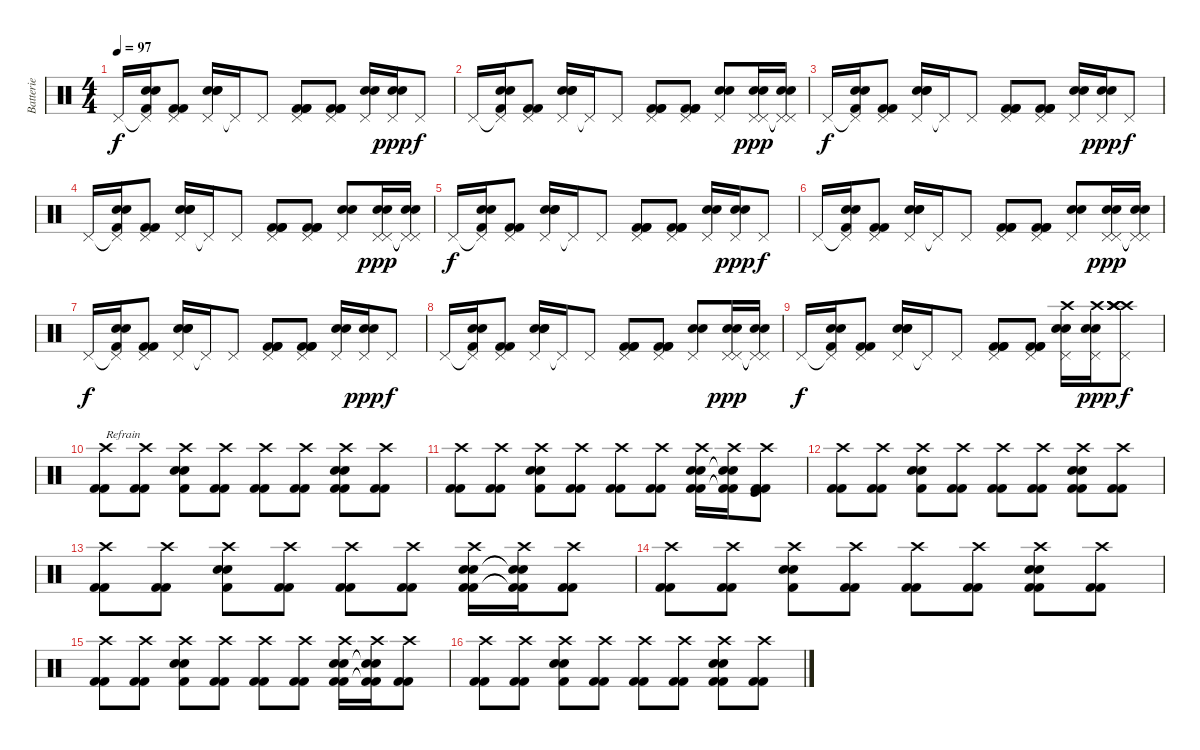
\track ("Batterie" "Batterie") {instrument percussion}
\staff {score}
\articulation defaults
\ts (4 4)
\tempo 97
\clef neutral
\ks c "Pedal Hi-Hat (hit)".16{dy f}
("Pedal Hi-Hat (hit)"{t} "Snare (hit) 2" "Snare (hit) 2" "Kick (hit) 2").16 ("Pedal Hi-Hat (hit)" "Kick (hit) 2" "Kick (hit) 2").8 ("Pedal Hi-Hat (hit)" "Snare (hit) 2" "Snare (hit) 2" "Snare (hit) 2").16 "Pedal Hi-Hat (hit)"{t}.16 "Pedal Hi-Hat (hit)".8 ("Pedal Hi-Hat (hit)" "Kick (hit) 2" "Kick (hit) 2" "Kick (hit) 2").8 ("Pedal Hi-Hat (hit)" "Kick (hit) 2" "Kick (hit) 2" "Kick (hit) 2").8 ("Pedal Hi-Hat (hit)" "Snare (hit) 2" "Snare (hit) 2").16 ("Pedal Hi-Hat (hit)" "Snare (hit) 2" "Snare (hit) 2").16{dy ppp} "Pedal Hi-Hat (hit)".8{dy f} |
"Pedal Hi-Hat (hit)".16 ("Pedal Hi-Hat (hit)"{t} "Snare (hit) 2" "Snare (hit) 2" "Kick (hit) 2").16 ("Pedal Hi-Hat (hit)" "Kick (hit) 2" "Kick (hit) 2").8 ("Pedal Hi-Hat (hit)" "Snare (hit) 2" "Snare (hit) 2" "Snare (hit) 2").16 "Pedal Hi-Hat (hit)"{t}.16 "Pedal Hi-Hat (hit)".8 ("Pedal Hi-Hat (hit)" "Kick (hit) 2" "Kick (hit) 2" "Kick (hit) 2").8 ("Pedal Hi-Hat (hit)" "Kick (hit) 2" "Kick (hit) 2" "Kick (hit) 2").8 ("Pedal Hi-Hat (hit)" "Snare (hit) 2" "Snare (hit) 2").8 ("Pedal Hi-Hat (hit)" "Pedal Hi-Hat (hit)" "Snare (hit) 2" "Snare (hit) 2").16{dy ppp} ("Pedal Hi-Hat (hit)"{t} "Pedal Hi-Hat (hit)"{t} "Snare (hit) 2" "Snare (hit) 2").16 |
"Pedal Hi-Hat (hit)".16{dy f} ("Pedal Hi-Hat (hit)"{t} "Snare (hit) 2" "Snare (hit) 2" "Kick (hit) 2").16 ("Pedal Hi-Hat (hit)" "Kick (hit) 2" "Kick (hit) 2").8 ("Pedal Hi-Hat (hit)" "Snare (hit) 2" "Snare (hit) 2" "Snare (hit) 2").16 "Pedal Hi-Hat (hit)"{t}.16 "Pedal Hi-Hat (hit)".8 ("Pedal Hi-Hat (hit)" "Kick (hit) 2" "Kick (hit) 2" "Kick (hit) 2").8 ("Pedal Hi-Hat (hit)" "Kick (hit) 2" "Kick (hit) 2" "Kick (hit) 2").8 ("Pedal Hi-Hat (hit)" "Snare (hit) 2" "Snare (hit) 2").16 ("Pedal Hi-Hat (hit)" "Snare (hit) 2" "Snare (hit) 2").16{dy ppp} "Pedal Hi-Hat (hit)".8{dy f} |
"Pedal Hi-Hat (hit)".16 ("Pedal Hi-Hat (hit)"{t} "Snare (hit) 2" "Snare (hit) 2" "Kick (hit) 2").16 ("Pedal Hi-Hat (hit)" "Kick (hit) 2" "Kick (hit) 2").8 ("Pedal Hi-Hat (hit)" "Snare (hit) 2" "Snare (hit) 2" "Snare (hit) 2").16 "Pedal Hi-Hat (hit)"{t}.16 "Pedal Hi-Hat (hit)".8 ("Pedal Hi-Hat (hit)" "Kick (hit) 2" "Kick (hit) 2" "Kick (hit) 2").8 ("Pedal Hi-Hat (hit)" "Kick (hit) 2" "Kick (hit) 2" "Kick (hit) 2").8 ("Pedal Hi-Hat (hit)" "Snare (hit) 2" "Snare (hit) 2").8 ("Pedal Hi-Hat (hit)" "Pedal Hi-Hat (hit)" "Snare (hit) 2" "Snare (hit) 2").16{dy ppp} ("Pedal Hi-Hat (hit)"{t} "Pedal Hi-Hat (hit)"{t} "Snare (hit) 2" "Snare (hit) 2").16 |
"Pedal Hi-Hat (hit)".16{dy f} ("Pedal Hi-Hat (hit)"{t} "Snare (hit) 2" "Snare (hit) 2" "Kick (hit) 2").16 ("Pedal Hi-Hat (hit)" "Kick (hit) 2" "Kick (hit) 2").8 ("Pedal Hi-Hat (hit)" "Snare (hit) 2" "Snare (hit) 2" "Snare (hit) 2").16 "Pedal Hi-Hat (hit)"{t}.16 "Pedal Hi-Hat (hit)".8 ("Pedal Hi-Hat (hit)" "Kick (hit) 2" "Kick (hit) 2" "Kick (hit) 2").8 ("Pedal Hi-Hat (hit)" "Kick (hit) 2" "Kick (hit) 2" "Kick (hit) 2").8 ("Pedal Hi-Hat (hit)" "Snare (hit) 2" "Snare (hit) 2").16 ("Pedal Hi-Hat (hit)" "Snare (hit) 2" "Snare (hit) 2").16{dy ppp} "Pedal Hi-Hat (hit)".8{dy f} |
"Pedal Hi-Hat (hit)".16 ("Pedal Hi-Hat (hit)"{t} "Snare (hit) 2" "Snare (hit) 2" "Kick (hit) 2").16 ("Pedal Hi-Hat (hit)" "Kick (hit) 2" "Kick (hit) 2").8 ("Pedal Hi-Hat (hit)" "Snare (hit) 2" "Snare (hit) 2" "Snare (hit) 2").16 "Pedal Hi-Hat (hit)"{t}.16 "Pedal Hi-Hat (hit)".8 ("Pedal Hi-Hat (hit)" "Kick (hit) 2" "Kick (hit) 2" "Kick (hit) 2").8 ("Pedal Hi-Hat (hit)" "Kick (hit) 2" "Kick (hit) 2" "Kick (hit) 2").8 ("Pedal Hi-Hat (hit)" "Snare (hit) 2" "Snare (hit) 2").8 ("Pedal Hi-Hat (hit)" "Pedal Hi-Hat (hit)" "Snare (hit) 2" "Snare (hit) 2").16{dy ppp} ("Pedal Hi-Hat (hit)"{t} "Pedal Hi-Hat (hit)"{t} "Snare (hit) 2" "Snare (hit) 2").16 |
"Pedal Hi-Hat (hit)".16{dy f} ("Pedal Hi-Hat (hit)"{t} "Snare (hit) 2" "Snare (hit) 2" "Kick (hit) 2").16 ("Pedal Hi-Hat (hit)" "Kick (hit) 2" "Kick (hit) 2").8 ("Pedal Hi-Hat (hit)" "Snare (hit) 2" "Snare (hit) 2" "Snare (hit) 2").16 "Pedal Hi-Hat (hit)"{t}.16 "Pedal Hi-Hat (hit)".8 ("Pedal Hi-Hat (hit)" "Kick (hit) 2" "Kick (hit) 2" "Kick (hit) 2").8 ("Pedal Hi-Hat (hit)" "Kick (hit) 2" "Kick (hit) 2" "Kick (hit) 2").8 ("Pedal Hi-Hat (hit)" "Snare (hit) 2" "Snare (hit) 2").16 ("Pedal Hi-Hat (hit)" "Snare (hit) 2" "Snare (hit) 2").16{dy ppp} "Pedal Hi-Hat (hit)".8{dy f} |
"Pedal Hi-Hat (hit)".16 ("Pedal Hi-Hat (hit)"{t} "Snare (hit) 2" "Snare (hit) 2" "Kick (hit) 2").16 ("Pedal Hi-Hat (hit)" "Kick (hit) 2" "Kick (hit) 2").8 ("Pedal Hi-Hat (hit)" "Snare (hit) 2" "Snare (hit) 2" "Snare (hit) 2").16 "Pedal Hi-Hat (hit)"{t}.16 "Pedal Hi-Hat (hit)".8 ("Pedal Hi-Hat (hit)" "Kick (hit) 2" "Kick (hit) 2" "Kick (hit) 2").8 ("Pedal Hi-Hat (hit)" "Kick (hit) 2" "Kick (hit) 2" "Kick (hit) 2").8 ("Pedal Hi-Hat (hit)" "Snare (hit) 2" "Snare (hit) 2").8 ("Pedal Hi-Hat (hit)" "Pedal Hi-Hat (hit)" "Snare (hit) 2" "Snare (hit) 2").16{dy ppp} ("Pedal Hi-Hat (hit)"{t} "Pedal Hi-Hat (hit)"{t} "Snare (hit) 2" "Snare (hit) 2").16 |
"Pedal Hi-Hat (hit)".16{dy f} ("Pedal Hi-Hat (hit)"{t} "Snare (hit) 2" "Snare (hit) 2" "Kick (hit) 2").16 ("Pedal Hi-Hat (hit)" "Kick (hit) 2" "Kick (hit) 2").8 ("Pedal Hi-Hat (hit)" "Snare (hit) 2" "Snare (hit) 2" "Snare (hit) 2").16 "Pedal Hi-Hat (hit)"{t}.16 "Pedal Hi-Hat (hit)".8 ("Pedal Hi-Hat (hit)" "Kick (hit) 2" "Kick (hit) 2" "Kick (hit) 2").8 ("Pedal Hi-Hat (hit)" "Kick (hit) 2" "Kick (hit) 2" "Kick (hit) 2").8 ("Pedal Hi-Hat (hit)" "Snare (hit) 2" "Snare (hit) 2" "Crash high (hit)").16 ("Pedal Hi-Hat (hit)" "Snare (hit) 2" "Snare (hit) 2" "Crash high (hit)").16{dy ppp} ("Pedal Hi-Hat (hit)" "Crash high (hit)" "Crash high (hit)" "Crash high (hit)" "Crash high (hit)").8{dy f} |
("Crash high (hit)" "Kick (hit) 2" "Kick (hit) 2").8{txt "Refrain"} ("Crash high (hit)" "Kick (hit) 2" "Kick (hit) 2").8 ("Crash high (hit)" "Snare (hit) 2" "Snare (hit) 2" "Kick (hit) 2").8 ("Crash high (hit)" "Kick (hit) 2" "Kick (hit) 2").8 ("Crash high (hit)" "Kick (hit) 2" "Kick (hit) 2").8 ("Crash high (hit)" "Kick (hit) 2" "Kick (hit) 2").8 ("Crash high (hit)" "Snare (hit) 2" "Snare (hit) 2" "Kick (hit) 2" "Kick (hit) 2").8 ("Crash high (hit)" "Kick (hit) 2" "Kick (hit) 2").8 |
("Crash high (hit)" "Kick (hit) 2" "Kick (hit) 2").8 ("Crash high (hit)" "Kick (hit) 2" "Kick (hit) 2").8 ("Crash high (hit)" "Snare (hit) 2" "Snare (hit) 2" "Kick (hit) 2").8 ("Crash high (hit)" "Kick (hit) 2" "Kick (hit) 2").8 ("Crash high (hit)" "Kick (hit) 2" "Kick (hit) 2").8 ("Crash high (hit)" "Kick (hit) 2" "Kick (hit) 2").8 ("Crash high (hit)" "Snare (hit) 2" "Snare (hit) 2" "Kick (hit) 2" "Kick (hit) 2").16 ("Crash high (hit)" "Snare (hit) 2"{t} "Snare (hit) 2"{t} "Kick (hit) 2"{t} "Kick (hit) 2"{t}).16 ("Crash high (hit)" "Kick (hit) 2" "Kick (hit) 2" "Kick (hit)").8 |
("Crash high (hit)" "Kick (hit) 2" "Kick (hit) 2").8 ("Crash high (hit)" "Kick (hit) 2" "Kick (hit) 2").8 ("Crash high (hit)" "Snare (hit) 2" "Snare (hit) 2" "Kick (hit) 2").8 ("Crash high (hit)" "Kick (hit) 2" "Kick (hit) 2").8 ("Crash high (hit)" "Kick (hit) 2" "Kick (hit) 2").8 ("Crash high (hit)" "Kick (hit) 2" "Kick (hit) 2").8 ("Crash high (hit)" "Snare (hit) 2" "Snare (hit) 2" "Kick (hit) 2" "Kick (hit) 2").8 ("Crash high (hit)" "Kick (hit) 2" "Kick (hit) 2").8 |
("Crash high (hit)" "Kick (hit) 2" "Kick (hit) 2").8 ("Crash high (hit)" "Kick (hit) 2" "Kick (hit) 2").8 ("Crash high (hit)" "Snare (hit) 2" "Snare (hit) 2" "Kick (hit) 2").8 ("Crash high (hit)" "Kick (hit) 2" "Kick (hit) 2").8 ("Crash high (hit)" "Kick (hit) 2" "Kick (hit) 2").8 ("Crash high (hit)" "Kick (hit) 2" "Kick (hit) 2").8 ("Crash high (hit)" "Snare (hit) 2" "Snare (hit) 2" "Kick (hit) 2" "Kick (hit) 2").16 ("Crash high (hit)" "Snare (hit) 2"{t} "Snare (hit) 2"{t} "Kick (hit) 2"{t} "Kick (hit) 2"{t}).16 ("Crash high (hit)" "Kick (hit) 2" "Kick (hit) 2").8 |
("Crash high (hit)" "Kick (hit) 2" "Kick (hit) 2").8 ("Crash high (hit)" "Kick (hit) 2" "Kick (hit) 2").8 ("Crash high (hit)" "Snare (hit) 2" "Snare (hit) 2" "Kick (hit) 2").8 ("Crash high (hit)" "Kick (hit) 2" "Kick (hit) 2").8 ("Crash high (hit)" "Kick (hit) 2" "Kick (hit) 2").8 ("Crash high (hit)" "Kick (hit) 2" "Kick (hit) 2").8 ("Crash high (hit)" "Snare (hit) 2" "Snare (hit) 2" "Kick (hit) 2" "Kick (hit) 2").8 ("Crash high (hit)" "Kick (hit) 2" "Kick (hit) 2").8 |
("Crash high (hit)" "Kick (hit) 2" "Kick (hit) 2").8 ("Crash high (hit)" "Kick (hit) 2" "Kick (hit) 2").8 ("Crash high (hit)" "Snare (hit) 2" "Snare (hit) 2" "Kick (hit) 2").8 ("Crash high (hit)" "Kick (hit) 2" "Kick (hit) 2").8 ("Crash high (hit)" "Kick (hit) 2" "Kick (hit) 2").8 ("Crash high (hit)" "Kick (hit) 2" "Kick (hit) 2").8 ("Crash high (hit)" "Snare (hit) 2" "Snare (hit) 2" "Kick (hit) 2" "Kick (hit) 2").16 ("Crash high (hit)" "Snare (hit) 2"{t} "Snare (hit) 2"{t} "Kick (hit) 2"{t} "Kick (hit) 2"{t}).16 ("Crash high (hit)" "Kick (hit) 2" "Kick (hit) 2").8 |
("Crash high (hit)" "Kick (hit) 2" "Kick (hit) 2").8 ("Crash high (hit)" "Kick (hit) 2" "Kick (hit) 2").8 ("Crash high (hit)" "Snare (hit) 2" "Snare (hit) 2" "Kick (hit) 2").8 ("Crash high (hit)" "Kick (hit) 2" "Kick (hit) 2").8 ("Crash high (hit)" "Kick (hit) 2" "Kick (hit) 2").8 ("Crash high (hit)" "Kick (hit) 2" "Kick (hit) 2").8 ("Crash high (hit)" "Snare (hit) 2" "Snare (hit) 2" "Kick (hit) 2" "Kick (hit) 2").8 ("Crash high (hit)" "Kick (hit) 2" "Kick (hit) 2").8
